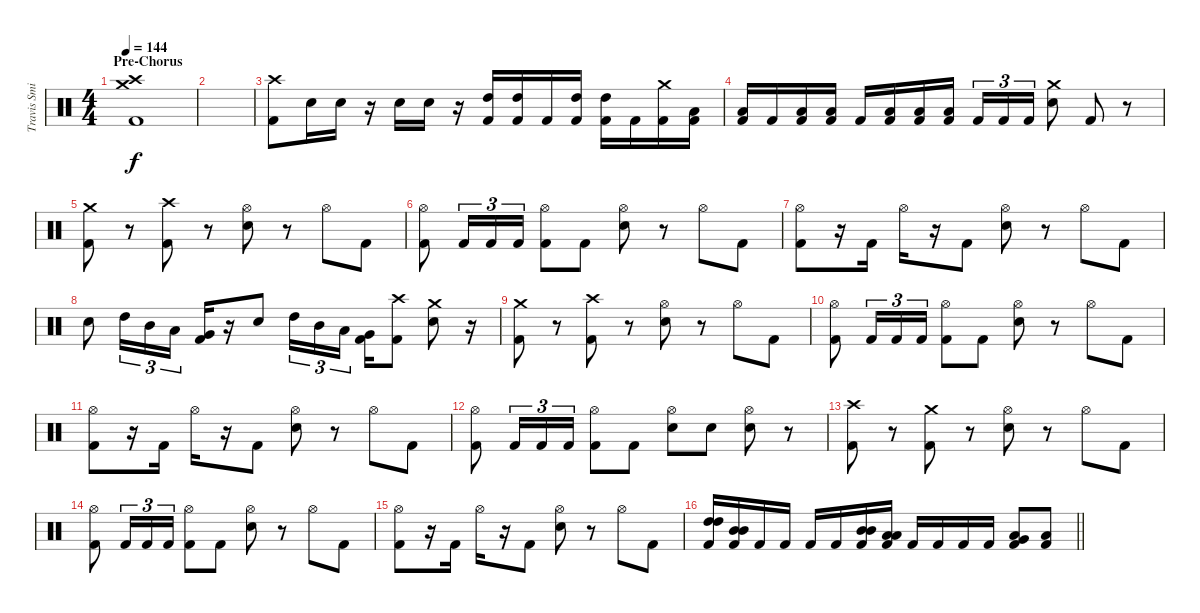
\track ("Travis Smith" "Travis Smi") {instrument percussion}
\staff {score}
\articulation defaults
\ts (4 4)
\section ("" "Pre-Chorus")
\tempo 144
\clef neutral
\ks c
("Crash medium (hit)" "Crash high (hit)" "Kick (hit) 2").1{dy f} |
|
("Crash high (hit)" "Kick (hit) 2").8 "Electric Snare (hit)".16 "Electric Snare (hit)".16 r.16 "Electric Snare (hit)".16 "Electric Snare (hit)".16 r.16 ("High Tom (hit)" "Kick (hit) 2").16 ("High Tom (hit)" "Kick (hit) 2").16 "Kick (hit) 2".16 ("High Tom (hit)" "Kick (hit) 2").16 ("High Tom (hit)" "Kick (hit) 2").16 "Kick (hit) 2".16 ("Crash medium (hit)" "Kick (hit) 2").16 ("Low Tom (hit)" "Kick (hit) 2").16 |
("Low Tom (hit)" "Kick (hit) 2").16 "Kick (hit) 2".16 ("Low Tom (hit)" "Kick (hit) 2").16 ("Low Tom (hit)" "Kick (hit) 2").16 "Kick (hit) 2".16 ("Low Floor Tom (hit)" "Kick (hit) 2").16 ("Low Floor Tom (hit)" "Kick (hit) 2").16 ("Low Floor Tom (hit)" "Kick (hit) 2").16 "Kick (hit) 2".16{tu (3 2)} "Kick (hit) 2".16{tu (3 2)} "Kick (hit) 2".16{tu (3 2)} ("Crash medium (hit)" "Electric Snare (hit)").8 "Kick (hit) 2".8 r.8 |
("Crash medium (hit)" "Kick (hit) 2").8 r.8 ("Crash high (hit)" "Kick (hit) 2").8 r.8 ("Hi-Hat (open)" "Electric Snare (hit)").8 r.8 "Hi-Hat (open)".8 "Kick (hit) 2".8 |
("Hi-Hat (open)" "Kick (hit) 2").8 "Kick (hit) 2".16{tu (3 2)} "Kick (hit) 2".16{tu (3 2)} "Kick (hit) 2".16{tu (3 2)} ("Hi-Hat (open)" "Kick (hit) 2").8 "Kick (hit) 2".8 ("Hi-Hat (open)" "Electric Snare (hit)").8 r.8 "Hi-Hat (open)".8 "Kick (hit) 2".8 |
("Hi-Hat (open)" "Kick (hit) 2").8 r.16 "Kick (hit) 2".16 "Hi-Hat (open)".16 r.16 "Kick (hit) 2".8 ("Hi-Hat (open)" "Electric Snare (hit)").8 r.8 "Hi-Hat (open)".8 "Kick (hit) 2".8 |
"Electric Snare (hit)".8 "High Tom (hit)".16{tu (3 2)} "Mid Tom (hit)".16{tu (3 2)} "Low Tom (hit)".16{tu (3 2)} ("Very Low Tom (hit)" "Kick (hit) 2").16 r.16 "Electric Snare (hit)".8 "High Tom (hit)".16{tu (3 2)} "Mid Tom (hit)".16{tu (3 2)} "Low Tom (hit)".16{tu (3 2) beam splitsecondary} ("Very Low Tom (hit)" "Kick (hit) 2").16 ("Crash high (hit)" "Kick (hit) 2").8 ("Crash medium (hit)" "Electric Snare (hit)").8 r.16 |
("Crash medium (hit)" "Kick (hit) 2").8 r.8 ("Crash high (hit)" "Kick (hit) 2").8 r.8 ("Hi-Hat (open)" "Electric Snare (hit)").8 r.8 "Hi-Hat (open)".8 "Kick (hit) 2".8 |
("Hi-Hat (open)" "Kick (hit) 2").8 "Kick (hit) 2".16{tu (3 2)} "Kick (hit) 2".16{tu (3 2)} "Kick (hit) 2".16{tu (3 2)} ("Hi-Hat (open)" "Kick (hit) 2").8 "Kick (hit) 2".8 ("Hi-Hat (open)" "Electric Snare (hit)").8 r.8 "Hi-Hat (open)".8 "Kick (hit) 2".8 |
("Hi-Hat (open)" "Kick (hit) 2").8 r.16 "Kick (hit) 2".16 "Hi-Hat (open)".16 r.16 "Kick (hit) 2".8 ("Hi-Hat (open)" "Electric Snare (hit)").8 r.8 "Hi-Hat (open)".8 "Kick (hit) 2".8 |
("Hi-Hat (open)" "Kick (hit) 2").8 "Kick (hit) 2".16{tu (3 2)} "Kick (hit) 2".16{tu (3 2)} "Kick (hit) 2".16{tu (3 2)} ("Hi-Hat (open)" "Kick (hit) 2").8 "Kick (hit) 2".8 ("Hi-Hat (open)" "Electric Snare (hit)").8 "Electric Snare (hit)".8 ("Hi-Hat (open)" "Electric Snare (hit)").8 r.8 |
("Crash high (hit)" "Kick (hit) 2").8 r.8 ("Crash medium (hit)" "Kick (hit) 2").8 r.8 ("Hi-Hat (open)" "Electric Snare (hit)").8 r.8 "Hi-Hat (open)".8 "Kick (hit) 2".8 |
("Hi-Hat (open)" "Kick (hit) 2").8 "Kick (hit) 2".16{tu (3 2)} "Kick (hit) 2".16{tu (3 2)} "Kick (hit) 2".16{tu (3 2)} ("Hi-Hat (open)" "Kick (hit) 2").8 "Kick (hit) 2".8 ("Hi-Hat (open)" "Electric Snare (hit)").8 r.8 "Hi-Hat (open)".8 "Kick (hit) 2".8 |
("Hi-Hat (open)" "Kick (hit) 2").8 r.16 "Kick (hit) 2".16 "Hi-Hat (open)".16 r.16 "Kick (hit) 2".8 ("Hi-Hat (open)" "Electric Snare (hit)").8 r.8 "Hi-Hat (open)".8 "Kick (hit) 2".8 |
\barLineRight lightlight
("High Tom (hit)" "High Tom (hit)" "Kick (hit) 2").16 ("Mid Tom (hit)" "Mid Tom (hit)" "Kick (hit) 2").16 "Kick (hit) 2".16 "Kick (hit) 2".16 "Kick (hit) 2".16 "Kick (hit) 2".16 ("Mid Tom (hit)" "Mid Tom (hit)" "Kick (hit) 2").16 ("Low Tom (hit)" "Low Tom (hit)" "Kick (hit) 2").16 "Kick (hit) 2".16 "Kick (hit) 2".16 "Kick (hit) 2".16 "Kick (hit) 2".16 ("Very Low Tom (hit)" "Low Tom (hit)" "Kick (hit) 2").8 ("Low Floor Tom (hit)" "Kick (hit) 2").8
